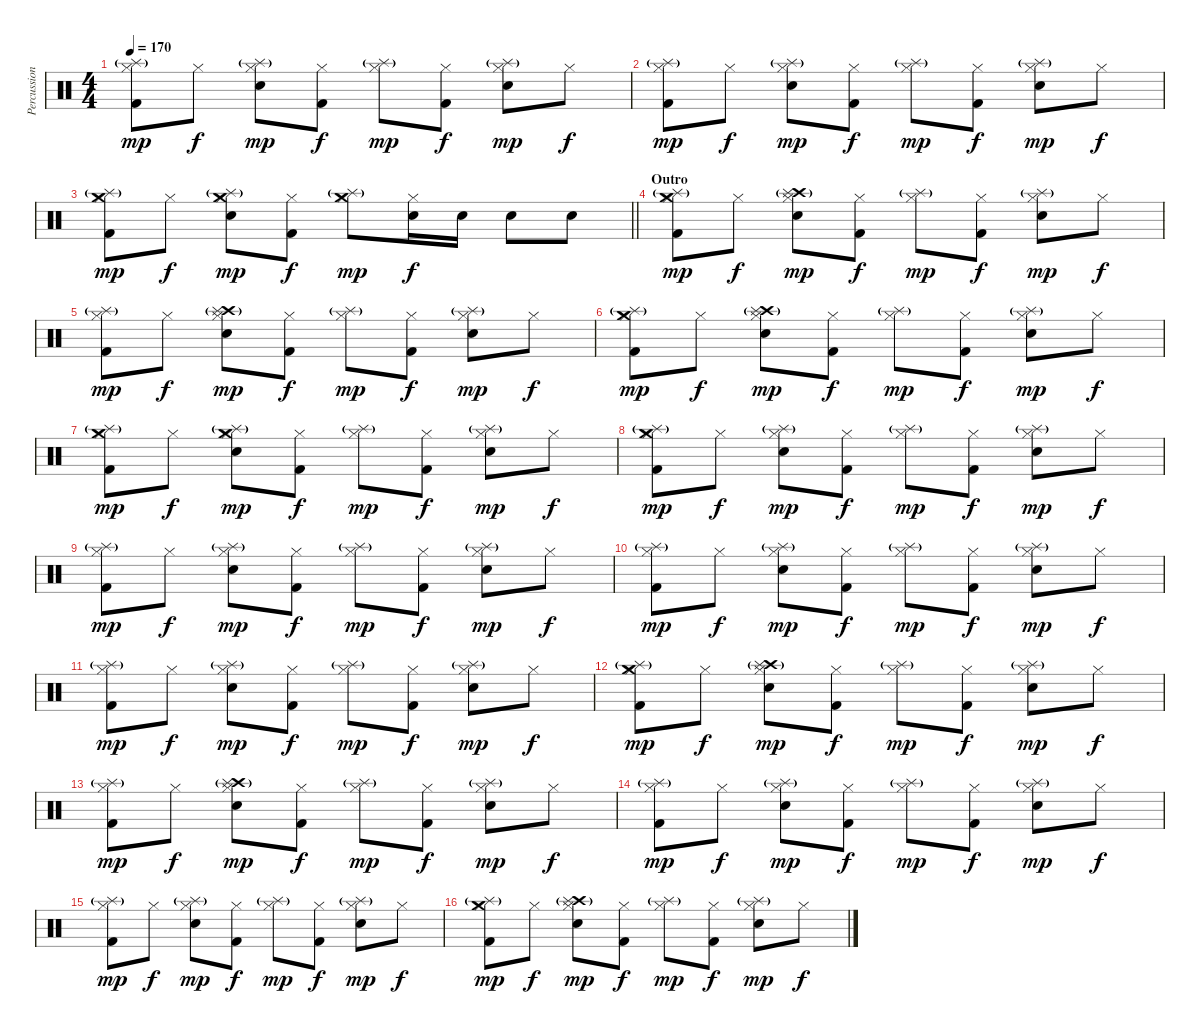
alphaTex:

\track ("Percussions" "Percussion") {instrument percussion}
\staff {score}
\articulation defaults
\ts (4 4)
\tempo 170
\clef neutral
\ks c
("Splash (hit)"{g} "Hi-Hat (closed)" "Kick (hit) 2").8{dy mp} "Hi-Hat (closed)".8{dy f} ("Splash (hit)"{g} "Hi-Hat (closed)" "Electric Snare (hit)").8{dy mp} ("Hi-Hat (closed)" "Kick (hit) 2").8{dy f} ("Splash (hit)"{g} "Hi-Hat (closed)").8{dy mp} ("Hi-Hat (closed)" "Kick (hit) 2").8{dy f} ("Splash (hit)"{g} "Hi-Hat (closed)" "Electric Snare (hit)").8{dy mp} "Hi-Hat (closed)".8{dy f} |
("Splash (hit)"{g} "Hi-Hat (closed)" "Kick (hit) 2").8{dy mp} "Hi-Hat (closed)".8{dy f} ("Splash (hit)"{g} "Hi-Hat (closed)" "Electric Snare (hit)").8{dy mp} ("Hi-Hat (closed)" "Kick (hit) 2").8{dy f} ("Splash (hit)"{g} "Hi-Hat (closed)").8{dy mp} ("Hi-Hat (closed)" "Kick (hit) 2").8{dy f} ("Splash (hit)"{g} "Hi-Hat (closed)" "Electric Snare (hit)").8{dy mp} "Hi-Hat (closed)".8{dy f} |
\barLineRight lightlight
("Crash medium (hit)" "Splash (hit)"{g} "Hi-Hat (closed)" "Kick (hit) 2").8{dy mp} "Hi-Hat (closed)".8{dy f} ("Crash medium (hit)" "Splash (hit)"{g} "Hi-Hat (closed)" "Electric Snare (hit)").8{dy mp} ("Hi-Hat (closed)" "Kick (hit) 2").8{dy f} ("Crash medium (hit)" "Splash (hit)"{g} "Hi-Hat (closed)").8{dy mp} ("Hi-Hat (closed)" "Electric Snare (hit)").16{dy f} "Electric Snare (hit)".16 "Electric Snare (hit)".8 "Electric Snare (hit)".8 |
\section ("" "Outro")
("Crash medium (hit)" "Splash (hit)"{g} "Hi-Hat (closed)" "Kick (hit) 2").8{dy mp} "Hi-Hat (closed)".8{dy f} ("Crash high (hit)" "Splash (hit)"{g} "Hi-Hat (closed)" "Electric Snare (hit)").8{dy mp} ("Hi-Hat (closed)" "Kick (hit) 2").8{dy f} ("Splash (hit)"{g} "Hi-Hat (closed)").8{dy mp} ("Hi-Hat (closed)" "Kick (hit) 2").8{dy f} ("Splash (hit)"{g} "Hi-Hat (closed)" "Electric Snare (hit)").8{dy mp} "Hi-Hat (closed)".8{dy f} |
("Splash (hit)"{g} "Hi-Hat (closed)" "Kick (hit) 2").8{dy mp} "Hi-Hat (closed)".8{dy f} ("Crash high (hit)" "Splash (hit)"{g} "Hi-Hat (closed)" "Electric Snare (hit)").8{dy mp} ("Hi-Hat (closed)" "Kick (hit) 2").8{dy f} ("Splash (hit)"{g} "Hi-Hat (closed)").8{dy mp} ("Hi-Hat (closed)" "Kick (hit) 2").8{dy f} ("Splash (hit)"{g} "Hi-Hat (closed)" "Electric Snare (hit)").8{dy mp} "Hi-Hat (closed)".8{dy f} |
("Crash medium (hit)" "Splash (hit)"{g} "Hi-Hat (closed)" "Kick (hit) 2").8{dy mp} "Hi-Hat (closed)".8{dy f} ("Crash high (hit)" "Splash (hit)"{g} "Hi-Hat (closed)" "Electric Snare (hit)").8{dy mp} ("Hi-Hat (closed)" "Kick (hit) 2").8{dy f} ("Splash (hit)"{g} "Hi-Hat (closed)").8{dy mp} ("Hi-Hat (closed)" "Kick (hit) 2").8{dy f} ("Splash (hit)"{g} "Hi-Hat (closed)" "Electric Snare (hit)").8{dy mp} "Hi-Hat (closed)".8{dy f} |
("Crash medium (hit)" "Splash (hit)"{g} "Hi-Hat (closed)" "Kick (hit) 2").8{dy mp} "Hi-Hat (closed)".8{dy f} ("Crash medium (hit)" "Splash (hit)"{g} "Hi-Hat (closed)" "Electric Snare (hit)").8{dy mp} ("Hi-Hat (closed)" "Kick (hit) 2").8{dy f} ("Splash (hit)"{g} "Hi-Hat (closed)").8{dy mp} ("Hi-Hat (closed)" "Kick (hit) 2").8{dy f} ("Splash (hit)"{g} "Hi-Hat (closed)" "Electric Snare (hit)").8{dy mp} "Hi-Hat (closed)".8{dy f} |
("Crash medium (hit)" "Splash (hit)"{g} "Hi-Hat (closed)" "Kick (hit) 2").8{dy mp} "Hi-Hat (closed)".8{dy f} ("Splash (hit)"{g} "Hi-Hat (closed)" "Electric Snare (hit)").8{dy mp} ("Hi-Hat (closed)" "Kick (hit) 2").8{dy f} ("Splash (hit)"{g} "Hi-Hat (closed)").8{dy mp} ("Hi-Hat (closed)" "Kick (hit) 2").8{dy f} ("Splash (hit)"{g} "Hi-Hat (closed)" "Electric Snare (hit)").8{dy mp} "Hi-Hat (closed)".8{dy f} |
("Splash (hit)"{g} "Hi-Hat (closed)" "Kick (hit) 2").8{dy mp} "Hi-Hat (closed)".8{dy f} ("Splash (hit)"{g} "Hi-Hat (closed)" "Electric Snare (hit)").8{dy mp} ("Hi-Hat (closed)" "Kick (hit) 2").8{dy f} ("Splash (hit)"{g} "Hi-Hat (closed)").8{dy mp} ("Hi-Hat (closed)" "Kick (hit) 2").8{dy f} ("Splash (hit)"{g} "Hi-Hat (closed)" "Electric Snare (hit)").8{dy mp} "Hi-Hat (closed)".8{dy f} |
("Splash (hit)"{g} "Hi-Hat (closed)" "Kick (hit) 2").8{dy mp} "Hi-Hat (closed)".8{dy f} ("Splash (hit)"{g} "Hi-Hat (closed)" "Electric Snare (hit)").8{dy mp} ("Hi-Hat (closed)" "Kick (hit) 2").8{dy f} ("Splash (hit)"{g} "Hi-Hat (closed)").8{dy mp} ("Hi-Hat (closed)" "Kick (hit) 2").8{dy f} ("Splash (hit)"{g} "Hi-Hat (closed)" "Electric Snare (hit)").8{dy mp} "Hi-Hat (closed)".8{dy f} |
("Splash (hit)"{g} "Hi-Hat (closed)" "Kick (hit) 2").8{dy mp} "Hi-Hat (closed)".8{dy f} ("Splash (hit)"{g} "Hi-Hat (closed)" "Electric Snare (hit)").8{dy mp} ("Hi-Hat (closed)" "Kick (hit) 2").8{dy f} ("Splash (hit)"{g} "Hi-Hat (closed)").8{dy mp} ("Hi-Hat (closed)" "Kick (hit) 2").8{dy f} ("Splash (hit)"{g} "Hi-Hat (closed)" "Electric Snare (hit)").8{dy mp} "Hi-Hat (closed)".8{dy f} |
("Crash medium (hit)" "Splash (hit)"{g} "Hi-Hat (closed)" "Kick (hit) 2").8{dy mp} "Hi-Hat (closed)".8{dy f} ("Crash high (hit)" "Splash (hit)"{g} "Hi-Hat (closed)" "Electric Snare (hit)").8{dy mp} ("Hi-Hat (closed)" "Kick (hit) 2").8{dy f} ("Splash (hit)"{g} "Hi-Hat (closed)").8{dy mp} ("Hi-Hat (closed)" "Kick (hit) 2").8{dy f} ("Splash (hit)"{g} "Hi-Hat (closed)" "Electric Snare (hit)").8{dy mp} "Hi-Hat (closed)".8{dy f} |
("Splash (hit)"{g} "Hi-Hat (closed)" "Kick (hit) 2").8{dy mp} "Hi-Hat (closed)".8{dy f} ("Crash high (hit)" "Splash (hit)"{g} "Hi-Hat (closed)" "Electric Snare (hit)").8{dy mp} ("Hi-Hat (closed)" "Kick (hit) 2").8{dy f} ("Splash (hit)"{g} "Hi-Hat (closed)").8{dy mp} ("Hi-Hat (closed)" "Kick (hit) 2").8{dy f} ("Splash (hit)"{g} "Hi-Hat (closed)" "Electric Snare (hit)").8{dy mp} "Hi-Hat (closed)".8{dy f} |
("Splash (hit)"{g} "Hi-Hat (closed)" "Kick (hit) 2").8{dy mp} "Hi-Hat (closed)".8{dy f} ("Splash (hit)"{g} "Hi-Hat (closed)" "Electric Snare (hit)").8{dy mp} ("Hi-Hat (closed)" "Kick (hit) 2").8{dy f} ("Splash (hit)"{g} "Hi-Hat (closed)").8{dy mp} ("Hi-Hat (closed)" "Kick (hit) 2").8{dy f} ("Splash (hit)"{g} "Hi-Hat (closed)" "Electric Snare (hit)").8{dy mp} "Hi-Hat (closed)".8{dy f} |
("Splash (hit)"{g} "Hi-Hat (closed)" "Kick (hit) 2").8{dy mp} "Hi-Hat (closed)".8{dy f} ("Splash (hit)"{g} "Hi-Hat (closed)" "Electric Snare (hit)").8{dy mp} ("Hi-Hat (closed)" "Kick (hit) 2").8{dy f} ("Splash (hit)"{g} "Hi-Hat (closed)").8{dy mp} ("Hi-Hat (closed)" "Kick (hit) 2").8{dy f} ("Splash (hit)"{g} "Hi-Hat (closed)" "Electric Snare (hit)").8{dy mp} "Hi-Hat (closed)".8{dy f} |
("Crash medium (hit)" "Splash (hit)"{g} "Hi-Hat (closed)" "Kick (hit) 2").8{dy mp} "Hi-Hat (closed)".8{dy f} ("Crash high (hit)" "Splash (hit)"{g} "Hi-Hat (closed)" "Electric Snare (hit)").8{dy mp} ("Hi-Hat (closed)" "Kick (hit) 2").8{dy f} ("Splash (hit)"{g} "Hi-Hat (closed)").8{dy mp} ("Hi-Hat (closed)" "Kick (hit) 2").8{dy f} ("Splash (hit)"{g} "Hi-Hat (closed)" "Electric Snare (hit)").8{dy mp} "Hi-Hat (closed)".8{dy f}
